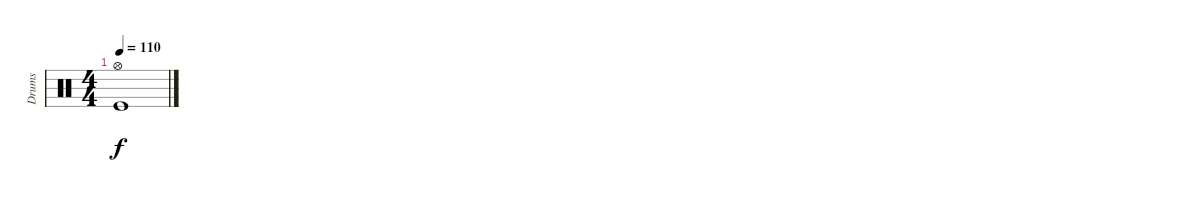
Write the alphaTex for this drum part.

\track ("Drums" "Drums") {instrument percussion}
\staff {score}
\articulation defaults
\ts (4 4)
\tempo 110
\clef neutral
\ks c
("Hi-Hat (open)"{t} "Kick (hit)"{t}).1{dy f}
